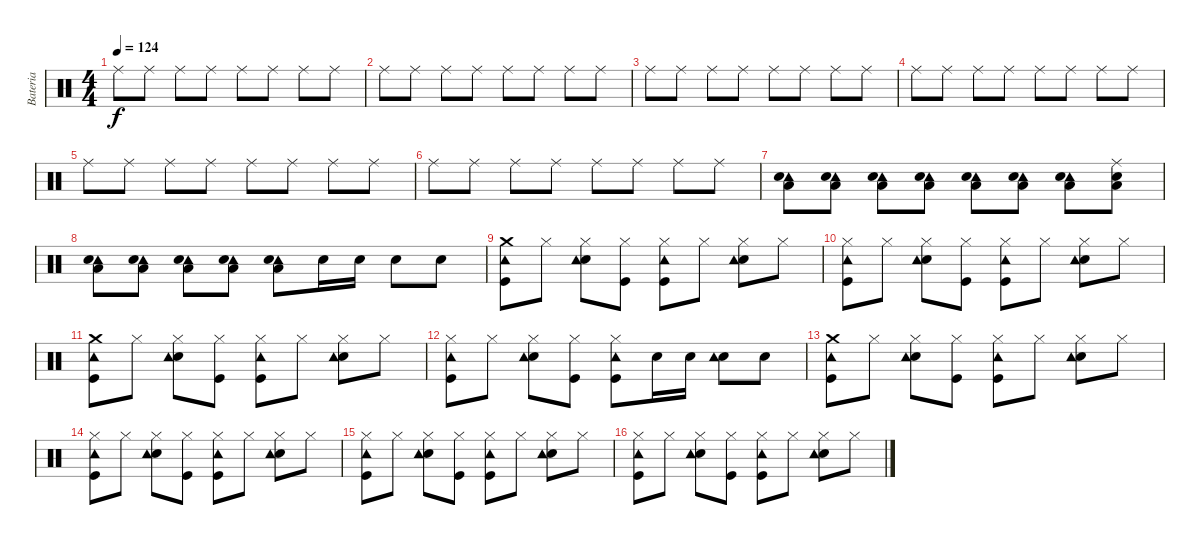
\track ("Bateria" "Bateria") {instrument percussion}
\staff {score}
\articulation defaults
\ts (4 4)
\tempo 124
\clef neutral
\ks c "Ride (middle)".8{dy f} "Ride (middle)".8 "Ride (middle)".8 "Ride (middle)".8 "Ride (middle)".8 "Ride (middle)".8 "Ride (middle)".8 "Ride (middle)".8
|
"Ride (middle)".8 "Ride (middle)".8 "Ride (middle)".8 "Ride (middle)".8 "Ride (middle)".8 "Ride (middle)".8 "Ride (middle)".8 "Ride (middle)".8 |
"Ride (middle)".8 "Ride (middle)".8 "Ride (middle)".8 "Ride (middle)".8 "Ride (middle)".8 "Ride (middle)".8 "Ride (middle)".8 "Ride (middle)".8 |
"Ride (middle)".8 "Ride (middle)".8 "Ride (middle)".8 "Ride (middle)".8 "Ride (middle)".8 "Ride (middle)".8 "Ride (middle)".8 "Ride (middle)".8 |
"Ride (middle)".8 "Ride (middle)".8 "Ride (middle)".8 "Ride (middle)".8 "Ride (middle)".8 "Ride (middle)".8 "Ride (middle)".8 "Ride (middle)".8 |
"Ride (middle)".8 "Ride (middle)".8 "Ride (middle)".8 "Ride (middle)".8 "Ride (middle)".8 "Ride (middle)".8 "Ride (middle)".8 "Ride (middle)".8{volume 4} |
("Tambourine (hit)" "Snare (hit) 2" "Low Floor Tom (hit)").8{volume 13} ("Tambourine (hit)" "Snare (hit) 2" "Low Floor Tom (hit)").8 ("Tambourine (hit)" "Snare (hit) 2" "Low Floor Tom (hit)").8 ("Tambourine (hit)" "Snare (hit) 2" "Low Floor Tom (hit)").8 ("Tambourine (hit)" "Snare (hit) 2" "Low Floor Tom (hit)").8 ("Tambourine (hit)" "Snare (hit) 2" "Low Floor Tom (hit)").8 ("Tambourine (hit)" "Snare (hit) 2" "Low Floor Tom (hit)").8 ("Ride (middle)" "Snare (hit) 2" "Low Floor Tom (hit)").8 |
("Tambourine (hit)" "Snare (hit) 2" "Low Floor Tom (hit)").8 ("Tambourine (hit)" "Snare (hit) 2" "Low Floor Tom (hit)").8 ("Tambourine (hit)" "Snare (hit) 2" "Low Floor Tom (hit)").8 ("Tambourine (hit)" "Snare (hit) 2" "Low Floor Tom (hit)").8 ("Tambourine (hit)" "Snare (hit) 2" "Low Floor Tom (hit)").8 "Snare (hit) 2".16 "Snare (hit) 2".16 "Snare (hit) 2".8 "Snare (hit) 2".8 |
("Crash medium (hit)" "Kick (hit)" "Tambourine (hit)").8 "Hi-Hat (closed)".8 ("Hi-Hat (closed)" "Snare (hit) 2" "Tambourine (hit)").8 ("Hi-Hat (closed)" "Kick (hit)").8 ("Hi-Hat (closed)" "Kick (hit)" "Tambourine (hit)").8 "Hi-Hat (closed)".8 ("Hi-Hat (closed)" "Snare (hit) 2" "Tambourine (hit)").8 "Hi-Hat (closed)".8 |
("Hi-Hat (closed)" "Kick (hit)" "Tambourine (hit)").8 "Hi-Hat (closed)".8 ("Hi-Hat (closed)" "Snare (hit) 2" "Tambourine (hit)").8 ("Hi-Hat (closed)" "Kick (hit)").8 ("Hi-Hat (closed)" "Kick (hit)" "Tambourine (hit)").8 "Hi-Hat (closed)".8 ("Hi-Hat (closed)" "Snare (hit) 2" "Tambourine (hit)").8 "Hi-Hat (closed)".8 |
("Crash medium (hit)" "Kick (hit)" "Tambourine (hit)").8 "Hi-Hat (closed)".8 ("Hi-Hat (closed)" "Snare (hit) 2" "Tambourine (hit)").8 ("Hi-Hat (closed)" "Kick (hit)").8 ("Hi-Hat (closed)" "Kick (hit)" "Tambourine (hit)").8 "Hi-Hat (closed)".8 ("Hi-Hat (closed)" "Snare (hit) 2" "Tambourine (hit)").8 "Hi-Hat (closed)".8 |
("Hi-Hat (closed)" "Kick (hit)" "Tambourine (hit)").8 "Hi-Hat (closed)".8 ("Hi-Hat (closed)" "Snare (hit) 2" "Tambourine (hit)").8 ("Hi-Hat (closed)" "Kick (hit)").8 ("Hi-Hat (closed)" "Kick (hit)" "Tambourine (hit)").8 "Snare (hit) 2".16 "Snare (hit) 2".16 ("Snare (hit) 2" "Tambourine (hit)").8 "Snare (hit) 2".8 |
("Crash medium (hit)" "Kick (hit)" "Tambourine (hit)").8 "Hi-Hat (closed)".8 ("Hi-Hat (closed)" "Snare (hit) 2" "Tambourine (hit)").8 ("Hi-Hat (closed)" "Kick (hit)").8 ("Hi-Hat (closed)" "Kick (hit)" "Tambourine (hit)").8 "Hi-Hat (closed)".8 ("Hi-Hat (closed)" "Snare (hit) 2" "Tambourine (hit)").8 "Hi-Hat (closed)".8 |
("Hi-Hat (closed)" "Kick (hit)" "Tambourine (hit)").8 "Hi-Hat (closed)".8 ("Hi-Hat (closed)" "Snare (hit) 2" "Tambourine (hit)").8 ("Hi-Hat (closed)" "Kick (hit)").8 ("Hi-Hat (closed)" "Kick (hit)" "Tambourine (hit)").8 "Hi-Hat (closed)".8 ("Hi-Hat (closed)" "Snare (hit) 2" "Tambourine (hit)").8 "Hi-Hat (closed)".8 |
("Hi-Hat (closed)" "Kick (hit)" "Tambourine (hit)").8 "Hi-Hat (closed)".8 ("Hi-Hat (closed)" "Snare (hit) 2" "Tambourine (hit)").8 ("Hi-Hat (closed)" "Kick (hit)").8 ("Hi-Hat (closed)" "Kick (hit)" "Tambourine (hit)").8 "Hi-Hat (closed)".8 ("Hi-Hat (closed)" "Snare (hit) 2" "Tambourine (hit)").8 "Hi-Hat (closed)".8 |
("Hi-Hat (closed)" "Kick (hit)" "Tambourine (hit)").8 "Hi-Hat (closed)".8 ("Hi-Hat (closed)" "Snare (hit) 2" "Tambourine (hit)").8 ("Hi-Hat (closed)" "Kick (hit)").8 ("Hi-Hat (closed)" "Kick (hit)" "Tambourine (hit)").8 "Hi-Hat (closed)".8 ("Hi-Hat (closed)" "Snare (hit) 2" "Tambourine (hit)").8 "Hi-Hat (closed)".8
